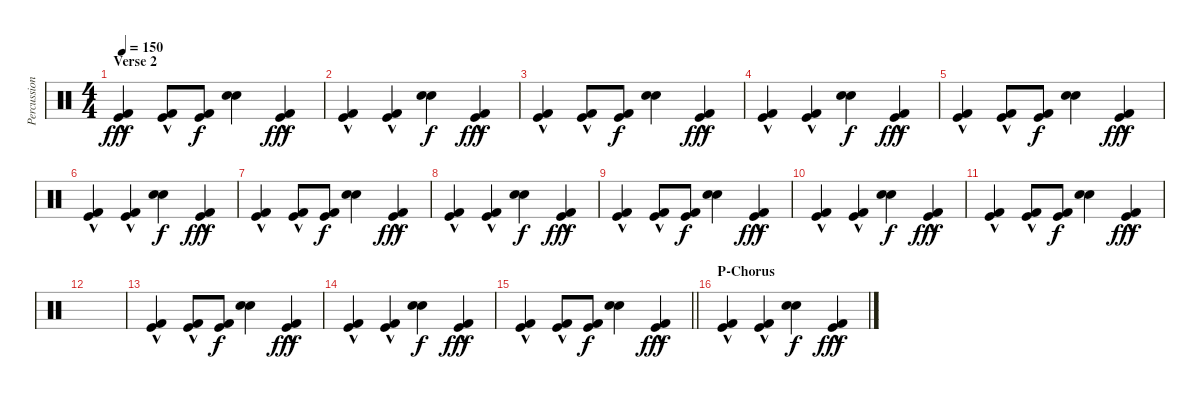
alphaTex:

\track ("Percussion" "Percussion") {instrument percussion}
\staff {score}
\articulation defaults
\ts (4 4)
\section ("" "Verse 2")
\tempo 150
\clef neutral
\ks c
("Kick (hit) 2"{hac} "Kick (hit)"{hac}).4{dy fff} ("Kick (hit) 2"{hac} "Kick (hit)"{hac}).8 ("Kick (hit) 2" "Kick (hit)").8{dy f} ("Snare (hit) 2" "Electric Snare (hit)").4 ("Kick (hit) 2"{hac} "Kick (hit)"{hac}).4{dy fff} |
("Kick (hit) 2"{hac} "Kick (hit)"{hac}).4 ("Kick (hit) 2"{hac} "Kick (hit)"{hac}).4 ("Snare (hit) 2" "Electric Snare (hit)").4{dy f} ("Kick (hit) 2"{hac} "Kick (hit)"{hac}).4{dy fff} |
("Kick (hit) 2"{hac} "Kick (hit)"{hac}).4 ("Kick (hit) 2"{hac} "Kick (hit)"{hac}).8 ("Kick (hit) 2" "Kick (hit)").8{dy f} ("Snare (hit) 2" "Electric Snare (hit)").4 ("Kick (hit) 2"{hac} "Kick (hit)"{hac}).4{dy fff} |
("Kick (hit) 2"{hac} "Kick (hit)"{hac}).4 ("Kick (hit) 2"{hac} "Kick (hit)"{hac}).4 ("Snare (hit) 2" "Electric Snare (hit)").4{dy f} ("Kick (hit) 2"{hac} "Kick (hit)"{hac}).4{dy fff} |
("Kick (hit) 2"{hac} "Kick (hit)"{hac}).4 ("Kick (hit) 2"{hac} "Kick (hit)"{hac}).8 ("Kick (hit) 2" "Kick (hit)").8{dy f} ("Snare (hit) 2" "Electric Snare (hit)").4 ("Kick (hit) 2"{hac} "Kick (hit)"{hac}).4{dy fff} |
("Kick (hit) 2"{hac} "Kick (hit)"{hac}).4 ("Kick (hit) 2"{hac} "Kick (hit)"{hac}).4 ("Snare (hit) 2" "Electric Snare (hit)").4{dy f} ("Kick (hit) 2"{hac} "Kick (hit)"{hac}).4{dy fff} |
("Kick (hit) 2"{hac} "Kick (hit)"{hac}).4 ("Kick (hit) 2"{hac} "Kick (hit)"{hac}).8 ("Kick (hit) 2" "Kick (hit)").8{dy f} ("Snare (hit) 2" "Electric Snare (hit)").4 ("Kick (hit) 2"{hac} "Kick (hit)"{hac}).4{dy fff} |
("Kick (hit) 2"{hac} "Kick (hit)"{hac}).4 ("Kick (hit) 2"{hac} "Kick (hit)"{hac}).4 ("Snare (hit) 2" "Electric Snare (hit)").4{dy f} ("Kick (hit) 2"{hac} "Kick (hit)"{hac}).4{dy fff} |
("Kick (hit) 2"{hac} "Kick (hit)"{hac}).4 ("Kick (hit) 2"{hac} "Kick (hit)"{hac}).8 ("Kick (hit) 2" "Kick (hit)").8{dy f} ("Snare (hit) 2" "Electric Snare (hit)").4 ("Kick (hit) 2"{hac} "Kick (hit)"{hac}).4{dy fff} |
("Kick (hit) 2"{hac} "Kick (hit)"{hac}).4 ("Kick (hit) 2"{hac} "Kick (hit)"{hac}).4 ("Snare (hit) 2" "Electric Snare (hit)").4{dy f} ("Kick (hit) 2"{hac} "Kick (hit)"{hac}).4{dy fff} |
("Kick (hit) 2"{hac} "Kick (hit)"{hac}).4 ("Kick (hit) 2"{hac} "Kick (hit)"{hac}).8 ("Kick (hit) 2" "Kick (hit)").8{dy f} ("Snare (hit) 2" "Electric Snare (hit)").4 ("Kick (hit) 2"{hac} "Kick (hit)"{hac}).4{dy fff} |
|
("Kick (hit) 2"{hac} "Kick (hit)"{hac}).4 ("Kick (hit) 2"{hac} "Kick (hit)"{hac}).8 ("Kick (hit) 2" "Kick (hit)").8{dy f} ("Snare (hit) 2" "Electric Snare (hit)").4 ("Kick (hit) 2"{hac} "Kick (hit)"{hac}).4{dy fff} |
("Kick (hit) 2"{hac} "Kick (hit)"{hac}).4 ("Kick (hit) 2"{hac} "Kick (hit)"{hac}).4 ("Snare (hit) 2" "Electric Snare (hit)").4{dy f} ("Kick (hit) 2"{hac} "Kick (hit)"{hac}).4{dy fff} |
\barLineRight lightlight
("Kick (hit) 2"{hac} "Kick (hit)"{hac}).4 ("Kick (hit) 2"{hac} "Kick (hit)"{hac}).8 ("Kick (hit) 2" "Kick (hit)").8{dy f} ("Snare (hit) 2" "Electric Snare (hit)").4 ("Kick (hit) 2"{hac} "Kick (hit)"{hac}).4{dy fff} |
\section ("" "P-Chorus")
("Kick (hit) 2"{hac} "Kick (hit)"{hac}).4 ("Kick (hit) 2"{hac} "Kick (hit)"{hac}).4 ("Snare (hit) 2" "Electric Snare (hit)").4{dy f} ("Kick (hit) 2"{hac} "Kick (hit)"{hac}).4{dy fff}
